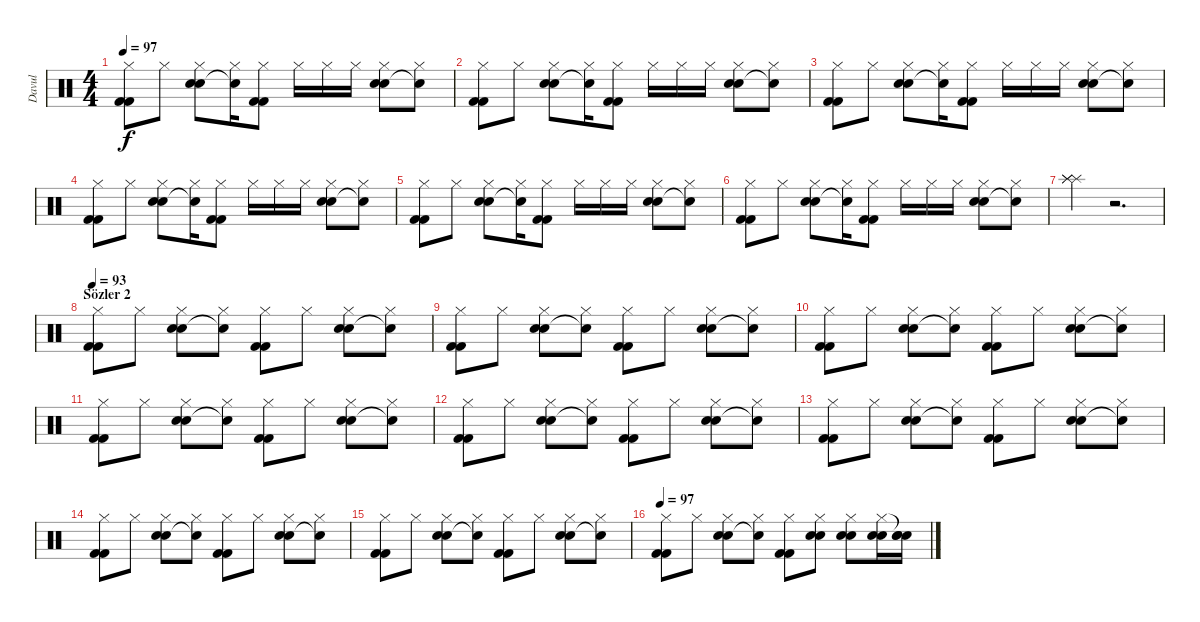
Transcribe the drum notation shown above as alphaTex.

\track ("Davul" "Davul") {instrument percussion}
\staff {score}
\articulation defaults
\ts (4 4)
\tempo 97
\clef neutral
\ks c
("Hi-Hat (closed)" "Kick (hit) 2" "Kick (hit) 2").8{dy f} "Hi-Hat (closed)".8 ("Hi-Hat (closed)" "Snare (hit) 2" "Snare (hit) 2").8 ("Hi-Hat (closed)" "Snare (hit)"{t}).16 ("Hi-Hat (closed)" "Kick (hit) 2" "Kick (hit) 2").8 "Hi-Hat (closed)".16 "Hi-Hat (closed)".16 "Hi-Hat (closed)".16 ("Hi-Hat (closed)" "Snare (hit) 2" "Snare (hit) 2").8 ("Hi-Hat (closed)" "Snare (hit)"{t}).8 |
("Hi-Hat (closed)" "Kick (hit) 2" "Kick (hit) 2").8 "Hi-Hat (closed)".8 ("Hi-Hat (closed)" "Snare (hit) 2" "Snare (hit) 2").8 ("Hi-Hat (closed)" "Snare (hit)"{t}).16 ("Hi-Hat (closed)" "Kick (hit) 2" "Kick (hit) 2").8 "Hi-Hat (closed)".16 "Hi-Hat (closed)".16 "Hi-Hat (closed)".16 ("Hi-Hat (closed)" "Snare (hit) 2" "Snare (hit) 2").8 ("Hi-Hat (closed)" "Snare (hit)"{t}).8 |
("Hi-Hat (closed)" "Kick (hit) 2" "Kick (hit) 2").8 "Hi-Hat (closed)".8 ("Hi-Hat (closed)" "Snare (hit) 2" "Snare (hit) 2").8 ("Hi-Hat (closed)" "Snare (hit)"{t}).16 ("Hi-Hat (closed)" "Kick (hit) 2" "Kick (hit) 2").8 "Hi-Hat (closed)".16 "Hi-Hat (closed)".16 "Hi-Hat (closed)".16 ("Hi-Hat (closed)" "Snare (hit) 2" "Snare (hit) 2").8 ("Hi-Hat (closed)" "Snare (hit)"{t}).8 |
("Hi-Hat (closed)" "Kick (hit) 2" "Kick (hit) 2").8 "Hi-Hat (closed)".8 ("Hi-Hat (closed)" "Snare (hit) 2" "Snare (hit) 2").8 ("Hi-Hat (closed)" "Snare (hit)"{t}).16 ("Hi-Hat (closed)" "Kick (hit) 2" "Kick (hit) 2").8 "Hi-Hat (closed)".16 "Hi-Hat (closed)".16 "Hi-Hat (closed)".16 ("Hi-Hat (closed)" "Snare (hit) 2" "Snare (hit) 2").8 ("Hi-Hat (closed)" "Snare (hit)"{t}).8 |
("Hi-Hat (closed)" "Kick (hit) 2" "Kick (hit) 2").8 "Hi-Hat (closed)".8 ("Hi-Hat (closed)" "Snare (hit) 2" "Snare (hit) 2").8 ("Hi-Hat (closed)" "Snare (hit)"{t}).16 ("Hi-Hat (closed)" "Kick (hit) 2" "Kick (hit) 2").8 "Hi-Hat (closed)".16 "Hi-Hat (closed)".16 "Hi-Hat (closed)".16 ("Hi-Hat (closed)" "Snare (hit) 2" "Snare (hit) 2").8 ("Hi-Hat (closed)" "Snare (hit)"{t}).8 |
("Hi-Hat (closed)" "Kick (hit) 2" "Kick (hit) 2").8 "Hi-Hat (closed)".8 ("Hi-Hat (closed)" "Snare (hit) 2" "Snare (hit) 2").8 ("Hi-Hat (closed)" "Snare (hit)"{t}).16 ("Hi-Hat (closed)" "Kick (hit) 2" "Kick (hit) 2").8 "Hi-Hat (closed)".16 "Hi-Hat (closed)".16 "Hi-Hat (closed)".16 ("Hi-Hat (closed)" "Snare (hit) 2" "Snare (hit) 2").8 ("Hi-Hat (closed)" "Snare (hit)"{t}).8 |
("Splash (hit)" "Splash (hit)" "Splash (hit)").4 r.2{d} |
\section ("" "Sözler 2")
\tempo 93
("Hi-Hat (closed)" "Kick (hit) 2" "Kick (hit) 2").8 "Hi-Hat (closed)".8 ("Hi-Hat (closed)" "Snare (hit) 2" "Snare (hit) 2").8 ("Hi-Hat (closed)" "Snare (hit)"{t}).8 ("Hi-Hat (closed)" "Kick (hit) 2" "Kick (hit) 2").8 "Hi-Hat (closed)".8 ("Hi-Hat (closed)" "Snare (hit) 2" "Snare (hit) 2").8 ("Hi-Hat (closed)" "Snare (hit)"{t}).8 |
("Hi-Hat (closed)" "Kick (hit) 2" "Kick (hit) 2").8 "Hi-Hat (closed)".8 ("Hi-Hat (closed)" "Snare (hit) 2" "Snare (hit) 2").8 ("Hi-Hat (closed)" "Snare (hit)"{t}).8 ("Hi-Hat (closed)" "Kick (hit) 2" "Kick (hit) 2").8 "Hi-Hat (closed)".8 ("Hi-Hat (closed)" "Snare (hit) 2" "Snare (hit) 2").8 ("Hi-Hat (closed)" "Snare (hit)"{t}).8 |
("Hi-Hat (closed)" "Kick (hit) 2" "Kick (hit) 2").8 "Hi-Hat (closed)".8 ("Hi-Hat (closed)" "Snare (hit) 2" "Snare (hit) 2").8 ("Hi-Hat (closed)" "Snare (hit)"{t}).8 ("Hi-Hat (closed)" "Kick (hit) 2" "Kick (hit) 2").8 "Hi-Hat (closed)".8 ("Hi-Hat (closed)" "Snare (hit) 2" "Snare (hit) 2").8 ("Hi-Hat (closed)" "Snare (hit)"{t}).8 |
("Hi-Hat (closed)" "Kick (hit) 2" "Kick (hit) 2").8 "Hi-Hat (closed)".8 ("Hi-Hat (closed)" "Snare (hit) 2" "Snare (hit) 2").8 ("Hi-Hat (closed)" "Snare (hit)"{t}).8 ("Hi-Hat (closed)" "Kick (hit) 2" "Kick (hit) 2").8 "Hi-Hat (closed)".8 ("Hi-Hat (closed)" "Snare (hit) 2" "Snare (hit) 2").8 ("Hi-Hat (closed)" "Snare (hit)"{t}).8 |
("Hi-Hat (closed)" "Kick (hit) 2" "Kick (hit) 2").8 "Hi-Hat (closed)".8 ("Hi-Hat (closed)" "Snare (hit) 2" "Snare (hit) 2").8 ("Hi-Hat (closed)" "Snare (hit)"{t}).8 ("Hi-Hat (closed)" "Kick (hit) 2" "Kick (hit) 2").8 "Hi-Hat (closed)".8 ("Hi-Hat (closed)" "Snare (hit) 2" "Snare (hit) 2").8 ("Hi-Hat (closed)" "Snare (hit)"{t}).8 |
("Hi-Hat (closed)" "Kick (hit) 2" "Kick (hit) 2").8 "Hi-Hat (closed)".8 ("Hi-Hat (closed)" "Snare (hit) 2" "Snare (hit) 2").8 ("Hi-Hat (closed)" "Snare (hit)"{t}).8 ("Hi-Hat (closed)" "Kick (hit) 2" "Kick (hit) 2").8 "Hi-Hat (closed)".8 ("Hi-Hat (closed)" "Snare (hit) 2" "Snare (hit) 2").8 ("Hi-Hat (closed)" "Snare (hit)"{t}).8 |
("Hi-Hat (closed)" "Kick (hit) 2" "Kick (hit) 2").8 "Hi-Hat (closed)".8 ("Hi-Hat (closed)" "Snare (hit) 2" "Snare (hit) 2").8 ("Hi-Hat (closed)" "Snare (hit)"{t}).8 ("Hi-Hat (closed)" "Kick (hit) 2" "Kick (hit) 2").8 "Hi-Hat (closed)".8 ("Hi-Hat (closed)" "Snare (hit) 2" "Snare (hit) 2").8 ("Hi-Hat (closed)" "Snare (hit)"{t}).8 |
("Hi-Hat (closed)" "Kick (hit) 2" "Kick (hit) 2").8 "Hi-Hat (closed)".8 ("Hi-Hat (closed)" "Snare (hit) 2" "Snare (hit) 2").8 ("Hi-Hat (closed)" "Snare (hit)"{t}).8 ("Hi-Hat (closed)" "Kick (hit) 2" "Kick (hit) 2").8 "Hi-Hat (closed)".8 ("Hi-Hat (closed)" "Snare (hit) 2" "Snare (hit) 2").8 ("Hi-Hat (closed)" "Snare (hit)"{t}).8 |
\tempo 97
("Hi-Hat (closed)" "Kick (hit) 2" "Kick (hit) 2").8 "Hi-Hat (closed)".8 ("Hi-Hat (closed)" "Snare (hit) 2" "Snare (hit) 2").8 ("Hi-Hat (closed)" "Snare (hit)"{t}).8 ("Hi-Hat (closed)" "Kick (hit) 2" "Kick (hit) 2").8 ("Hi-Hat (closed)" "Snare (hit) 2" "Snare (hit) 2").8 ("Hi-Hat (closed)" "Snare (hit) 2" "Snare (hit) 2").8 ("Hi-Hat (closed)" "Snare (hit) 2" "Snare (hit) 2").16 ("Snare (hit)"{t} "Snare (hit) 2" "Snare (hit) 2").16
